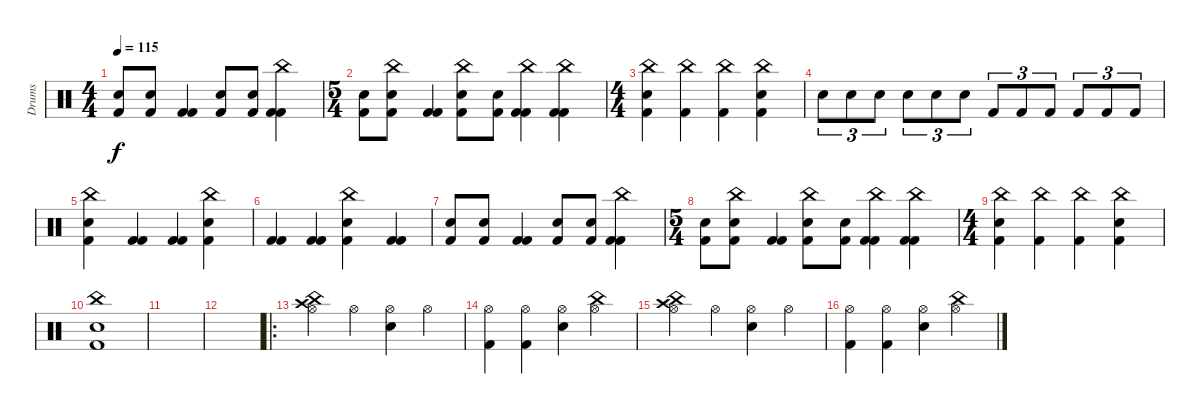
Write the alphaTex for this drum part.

\track ("Drums" "Drums") {instrument percussion}
\staff {score}
\articulation defaults
\ts (4 4)
\tempo 115
\clef neutral
\ks c
("Kick (hit) 2" "Snare (hit) 2").8{dy f} ("Kick (hit) 2" "Snare (hit) 2").8 ("Kick (hit) 2" "Kick (hit) 2").4 ("Kick (hit) 2" "Snare (hit) 2").8 ("Kick (hit) 2" "Snare (hit) 2").8 ("China (hit)" "Kick (hit) 2" "Kick (hit) 2").4 |
\ts (5 4)
("Kick (hit) 2" "Snare (hit) 2").8 ("China (hit)" "Kick (hit) 2" "Snare (hit) 2").8 ("Kick (hit) 2" "Kick (hit) 2").4 ("China (hit)" "Kick (hit) 2" "Snare (hit) 2").8 ("Kick (hit) 2" "Snare (hit) 2").8 ("China (hit)" "Kick (hit) 2" "Kick (hit) 2").4 ("China (hit)" "Kick (hit) 2" "Kick (hit) 2").4 |
\ts (4 4)
("China (hit)" "Kick (hit) 2" "Snare (hit) 2").4 ("China (hit)" "Kick (hit) 2").4 ("China (hit)" "Kick (hit) 2").4 ("China (hit)" "Kick (hit) 2" "Snare (hit) 2").4 |
"Snare (hit) 2".8{tu (3 2)} "Snare (hit) 2".8{tu (3 2)} "Snare (hit) 2".8{tu (3 2)} "Snare (hit) 2".8{tu (3 2)} "Snare (hit) 2".8{tu (3 2)} "Snare (hit) 2".8{tu (3 2)} "Kick (hit) 2".8{tu (3 2)} "Kick (hit) 2".8{tu (3 2)} "Kick (hit) 2".8{tu (3 2)} "Kick (hit) 2".8{tu (3 2)} "Kick (hit) 2".8{tu (3 2)} "Kick (hit) 2".8{tu (3 2)} |
("China (hit)" "Kick (hit) 2" "Snare (hit) 2").4 ("Kick (hit) 2" "Kick (hit) 2").4 ("Kick (hit) 2" "Kick (hit) 2").4 ("China (hit)" "Kick (hit) 2" "Snare (hit) 2").4 |
("Kick (hit) 2" "Kick (hit) 2").4 ("Kick (hit) 2" "Kick (hit) 2").4 ("China (hit)" "Kick (hit) 2" "Snare (hit) 2").4 ("Kick (hit) 2" "Kick (hit) 2").4 |
("Kick (hit) 2" "Snare (hit) 2").8 ("Kick (hit) 2" "Snare (hit) 2").8 ("Kick (hit) 2" "Kick (hit) 2").4 ("Kick (hit) 2" "Snare (hit) 2").8 ("Kick (hit) 2" "Snare (hit) 2").8 ("China (hit)" "Kick (hit) 2" "Kick (hit) 2").4 |
\ts (5 4)
("Kick (hit) 2" "Snare (hit) 2").8 ("China (hit)" "Kick (hit) 2" "Snare (hit) 2").8 ("Kick (hit) 2" "Kick (hit) 2").4 ("China (hit)" "Kick (hit) 2" "Snare (hit) 2").8 ("Kick (hit) 2" "Snare (hit) 2").8 ("China (hit)" "Kick (hit) 2" "Kick (hit) 2").4 ("China (hit)" "Kick (hit) 2" "Kick (hit) 2").4 |
\ts (4 4)
("China (hit)" "Kick (hit) 2" "Snare (hit) 2").4 ("China (hit)" "Kick (hit) 2").4 ("China (hit)" "Kick (hit) 2").4 ("China (hit)" "Kick (hit) 2" "Snare (hit) 2").4 |
("China (hit)" "Kick (hit) 2" "Snare (hit) 2").1 |
|
|
\ro
("Crash high (hit)" "Hi-Hat (open)" "China (hit)").4 "Hi-Hat (open)".4 ("Hi-Hat (open)" "Snare (hit) 2").4 "Hi-Hat (open)".4 |
("Hi-Hat (open)" "Kick (hit) 2").4 ("Hi-Hat (open)" "Kick (hit) 2").4 ("Hi-Hat (open)" "Snare (hit) 2").4 ("Hi-Hat (open)" "China (hit)").4 |
("Crash high (hit)" "Hi-Hat (open)" "China (hit)").4 "Hi-Hat (open)".4 ("Hi-Hat (open)" "Snare (hit) 2").4 "Hi-Hat (open)".4 |
("Hi-Hat (open)" "Kick (hit) 2").4 ("Hi-Hat (open)" "Kick (hit) 2").4 ("Hi-Hat (open)" "Snare (hit) 2").4 ("Hi-Hat (open)" "China (hit)").4
